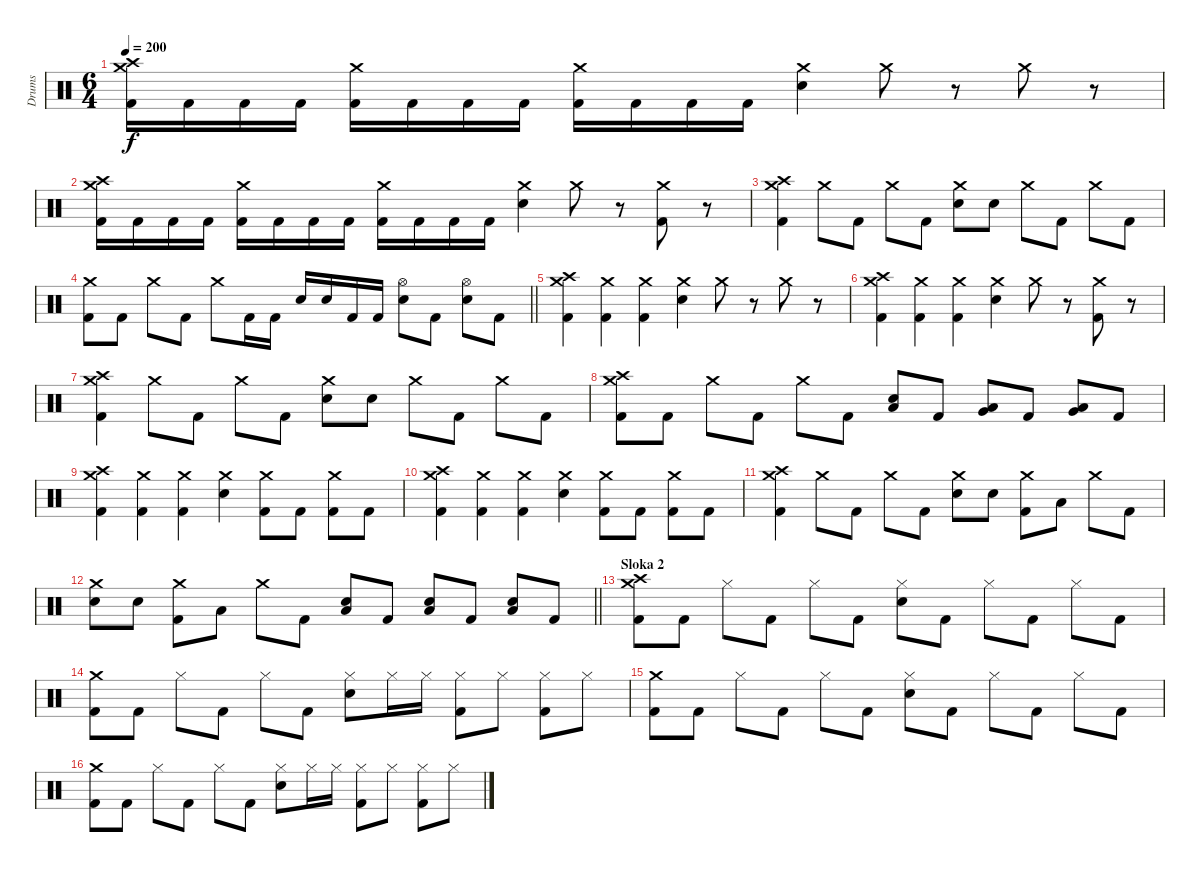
\track ("Drums" "Drums") {instrument percussion}
\staff {score}
\articulation defaults
\ts (6 4)
\tempo 200
\clef neutral
\ks c
("Crash medium (hit)" "Crash high (hit)" "Kick (hit) 2").16{dy f} "Kick (hit) 2".16 "Kick (hit) 2".16 "Kick (hit) 2".16 ("Crash medium (hit)" "Kick (hit) 2").16 "Kick (hit) 2".16 "Kick (hit) 2".16 "Kick (hit) 2".16 ("Crash medium (hit)" "Kick (hit) 2").16 "Kick (hit) 2".16 "Kick (hit) 2".16 "Kick (hit) 2".16 ("Crash medium (hit)" "Electric Snare (hit)").4 "Crash medium (hit)".8 r.8 "Crash medium (hit)".8 r.8 |
("Crash medium (hit)" "Crash high (hit)" "Kick (hit) 2").16 "Kick (hit) 2".16 "Kick (hit) 2".16 "Kick (hit) 2".16 ("Crash medium (hit)" "Kick (hit) 2").16 "Kick (hit) 2".16 "Kick (hit) 2".16 "Kick (hit) 2".16 ("Crash medium (hit)" "Kick (hit) 2").16 "Kick (hit) 2".16 "Kick (hit) 2".16 "Kick (hit) 2".16 ("Crash medium (hit)" "Electric Snare (hit)").4 "Crash medium (hit)".8 r.8 ("Crash medium (hit)" "Kick (hit) 2").8 r.8 |
("Crash medium (hit)" "Crash high (hit)" "Kick (hit) 2").4 "Crash medium (hit)".8 "Kick (hit) 2".8 "Crash medium (hit)".8 "Kick (hit) 2".8 ("Crash medium (hit)" "Electric Snare (hit)").8 "Electric Snare (hit)".8 "Crash medium (hit)".8 "Kick (hit) 2".8 "Crash medium (hit)".8 "Kick (hit) 2".8 |
\barLineRight lightlight
("Crash medium (hit)" "Kick (hit) 2").8 "Kick (hit) 2".8 "Crash medium (hit)".8 "Kick (hit) 2".8 "Crash medium (hit)".8 "Kick (hit) 2".16 "Kick (hit) 2".16 "Electric Snare (hit)".16 "Electric Snare (hit)".16 "Kick (hit) 2".16 "Kick (hit) 2".16 ("Hi-Hat (open)" "Electric Snare (hit)").8 "Kick (hit) 2".8 ("Hi-Hat (open)" "Electric Snare (hit)").8 "Kick (hit) 2".8 |
("Crash medium (hit)" "Crash high (hit)" "Kick (hit) 2").4 ("Crash medium (hit)" "Kick (hit) 2").4 ("Crash medium (hit)" "Kick (hit) 2").4 ("Crash medium (hit)" "Electric Snare (hit)").4 "Crash medium (hit)".8 r.8 "Crash medium (hit)".8 r.8 |
("Crash medium (hit)" "Crash high (hit)" "Kick (hit) 2").4 ("Crash medium (hit)" "Kick (hit) 2").4 ("Crash medium (hit)" "Kick (hit) 2").4 ("Crash medium (hit)" "Electric Snare (hit)").4 "Crash medium (hit)".8 r.8 ("Crash medium (hit)" "Kick (hit) 2").8 r.8 |
("Crash medium (hit)" "Crash high (hit)" "Kick (hit) 2").4 "Crash medium (hit)".8 "Kick (hit) 2".8 "Crash medium (hit)".8 "Kick (hit) 2".8 ("Crash medium (hit)" "Electric Snare (hit)").8 "Electric Snare (hit)".8 "Crash medium (hit)".8 "Kick (hit) 2".8 "Crash medium (hit)".8 "Kick (hit) 2".8 |
("Crash medium (hit)" "Crash high (hit)" "Kick (hit) 2").8 "Kick (hit) 2".8 "Crash medium (hit)".8 "Kick (hit) 2".8 "Crash medium (hit)".8 "Kick (hit) 2".8 ("Low Floor Tom (hit)" "Electric Snare (hit)").8 "Kick (hit) 2".8 ("Low Tom (hit)" "Very Low Tom (hit)").8 "Kick (hit) 2".8 ("Very Low Tom (hit)" "Low Floor Tom (hit)").8 "Kick (hit) 2".8 |
("Crash medium (hit)" "Crash high (hit)" "Kick (hit) 2").4 ("Crash medium (hit)" "Kick (hit) 2").4 ("Crash medium (hit)" "Kick (hit) 2").4 ("Crash medium (hit)" "Electric Snare (hit)").4 ("Crash medium (hit)" "Kick (hit) 2").8 "Kick (hit) 2".8 ("Crash medium (hit)" "Kick (hit) 2").8 "Kick (hit) 2".8 |
("Crash medium (hit)" "Crash high (hit)" "Kick (hit) 2").4 ("Crash medium (hit)" "Kick (hit) 2").4 ("Crash medium (hit)" "Kick (hit) 2").4 ("Crash medium (hit)" "Electric Snare (hit)").4 ("Crash medium (hit)" "Kick (hit) 2").8 "Kick (hit) 2".8 ("Crash medium (hit)" "Kick (hit) 2").8 "Kick (hit) 2".8 |
("Crash medium (hit)" "Crash high (hit)" "Kick (hit) 2").4 "Crash medium (hit)".8 "Kick (hit) 2".8 "Crash medium (hit)".8 "Kick (hit) 2".8 ("Crash medium (hit)" "Electric Snare (hit)").8 "Electric Snare (hit)".8 ("Crash medium (hit)" "Kick (hit) 2").8 "Low Tom (hit)".8 "Crash medium (hit)".8 "Kick (hit) 2".8 |
\barLineRight lightlight
("Crash medium (hit)" "Electric Snare (hit)").8 "Electric Snare (hit)".8 ("Crash medium (hit)" "Kick (hit) 2").8 "Low Tom (hit)".8 "Crash medium (hit)".8 "Kick (hit) 2".8 ("Low Floor Tom (hit)" "Electric Snare (hit)").8 "Kick (hit) 2".8 ("Low Floor Tom (hit)" "Electric Snare (hit)").8 "Kick (hit) 2".8 ("Low Floor Tom (hit)" "Electric Snare (hit)").8 "Kick (hit) 2".8 |
\section ("" "Sloka 2")
("Crash medium (hit)" "Crash high (hit)" "Kick (hit) 2").8 "Kick (hit) 2".8 "Hi-Hat (closed)".8 "Kick (hit) 2".8 "Hi-Hat (closed)".8 "Kick (hit) 2".8 ("Hi-Hat (closed)" "Electric Snare (hit)").8 "Kick (hit) 2".8 "Hi-Hat (closed)".8 "Kick (hit) 2".8 "Hi-Hat (closed)".8 "Kick (hit) 2".8 |
("Crash medium (hit)" "Kick (hit) 2").8 "Kick (hit) 2".8 "Hi-Hat (closed)".8 "Kick (hit) 2".8 "Hi-Hat (closed)".8 "Kick (hit) 2".8 ("Hi-Hat (closed)" "Electric Snare (hit)").8 "Hi-Hat (closed)".16 "Hi-Hat (closed)".16 ("Hi-Hat (closed)" "Kick (hit) 2").8 "Hi-Hat (closed)".8 ("Hi-Hat (closed)" "Kick (hit) 2").8 "Hi-Hat (closed)".8 |
("Crash medium (hit)" "Kick (hit) 2").8 "Kick (hit) 2".8 "Hi-Hat (closed)".8 "Kick (hit) 2".8 "Hi-Hat (closed)".8 "Kick (hit) 2".8 ("Hi-Hat (closed)" "Electric Snare (hit)").8 "Kick (hit) 2".8 "Hi-Hat (closed)".8 "Kick (hit) 2".8 "Hi-Hat (closed)".8 "Kick (hit) 2".8 |
("Crash medium (hit)" "Kick (hit) 2").8 "Kick (hit) 2".8 "Hi-Hat (closed)".8 "Kick (hit) 2".8 "Hi-Hat (closed)".8 "Kick (hit) 2".8 ("Hi-Hat (closed)" "Electric Snare (hit)").8 "Hi-Hat (closed)".16 "Hi-Hat (closed)".16 ("Hi-Hat (closed)" "Kick (hit) 2").8 "Hi-Hat (closed)".8 ("Hi-Hat (closed)" "Kick (hit) 2").8 "Hi-Hat (closed)".8
